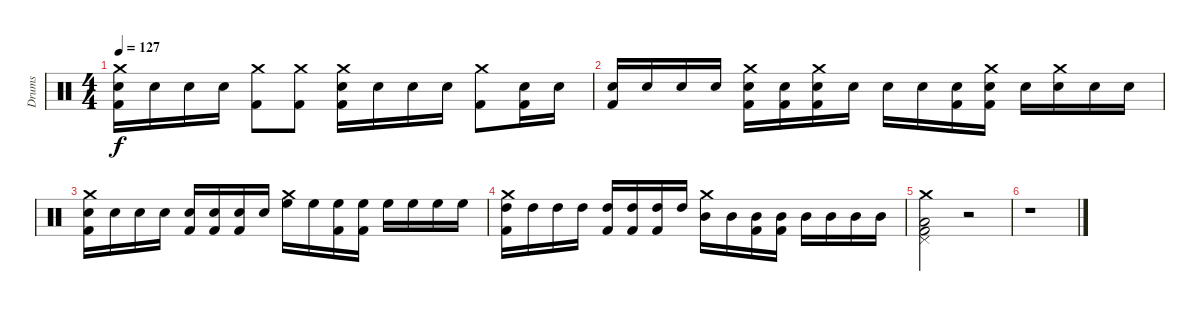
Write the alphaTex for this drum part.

\track ("Drums" "Drums") {instrument percussion}
\staff {score}
\articulation defaults
\ts (4 4)
\tempo 127
\clef neutral
\ks c
("Crash medium (hit)" "Electric Snare (hit)" "Kick (hit) 2").16{dy f} "Electric Snare (hit)".16 "Electric Snare (hit)".16 "Electric Snare (hit)".16 ("Crash medium (hit)" "Kick (hit) 2").8 ("Crash medium (hit)" "Kick (hit) 2").8 ("Crash medium (hit)" "Electric Snare (hit)" "Kick (hit) 2").16 "Electric Snare (hit)".16 "Electric Snare (hit)".16 "Electric Snare (hit)".16 ("Crash medium (hit)" "Kick (hit) 2").8 ("Electric Snare (hit)" "Kick (hit) 2").16 "Electric Snare (hit)".16 |
("Electric Snare (hit)" "Kick (hit) 2").16 "Electric Snare (hit)".16 "Electric Snare (hit)".16 "Electric Snare (hit)".16 ("Crash medium (hit)" "Electric Snare (hit)" "Kick (hit) 2").16 ("Electric Snare (hit)" "Kick (hit) 2").16 ("Crash medium (hit)" "Electric Snare (hit)" "Kick (hit) 2").16 "Electric Snare (hit)".16 "Electric Snare (hit)".16 "Electric Snare (hit)".16 ("Electric Snare (hit)" "Kick (hit) 2").16 ("Crash medium (hit)" "Electric Snare (hit)" "Kick (hit) 2").16 "Electric Snare (hit)".16 ("Crash medium (hit)" "Electric Snare (hit)").16 "Electric Snare (hit)".16 "Electric Snare (hit)".16 |
("Crash medium (hit)" "Electric Snare (hit)" "Kick (hit) 2").16 "Electric Snare (hit)".16 "Electric Snare (hit)".16 "Electric Snare (hit)".16 ("Electric Snare (hit)" "Kick (hit) 2").16 ("Electric Snare (hit)" "Kick (hit) 2").16 ("Electric Snare (hit)" "Kick (hit) 2").16 "Electric Snare (hit)".16 ("Crash medium (hit)" "High Floor Tom (hit)").16 "High Floor Tom (hit)".16 ("High Floor Tom (hit)" "Kick (hit) 2").16 ("High Floor Tom (hit)" "Kick (hit) 2").16 "High Floor Tom (hit)".16 "High Floor Tom (hit)".16 "High Floor Tom (hit)".16 "High Floor Tom (hit)".16 |
("Crash medium (hit)" "High Tom (hit)" "Kick (hit) 2").16 "High Tom (hit)".16 "High Tom (hit)".16 "High Tom (hit)".16 ("High Tom (hit)" "Kick (hit) 2").16 ("High Tom (hit)" "Kick (hit) 2").16 ("High Tom (hit)" "Kick (hit) 2").16 "High Tom (hit)".16 ("Crash medium (hit)" "Mid Tom (hit)").16 "Mid Tom (hit)".16 ("Mid Tom (hit)" "Kick (hit) 2").16 ("Mid Tom (hit)" "Kick (hit) 2").16 "Mid Tom (hit)".16 "Mid Tom (hit)".16 "Mid Tom (hit)".16 "Mid Tom (hit)".16 |
("Crash medium (hit)" "Pedal Hi-Hat (hit)" "Low Tom (hit)" "Kick (hit) 2").2 r.2 |
r.1
